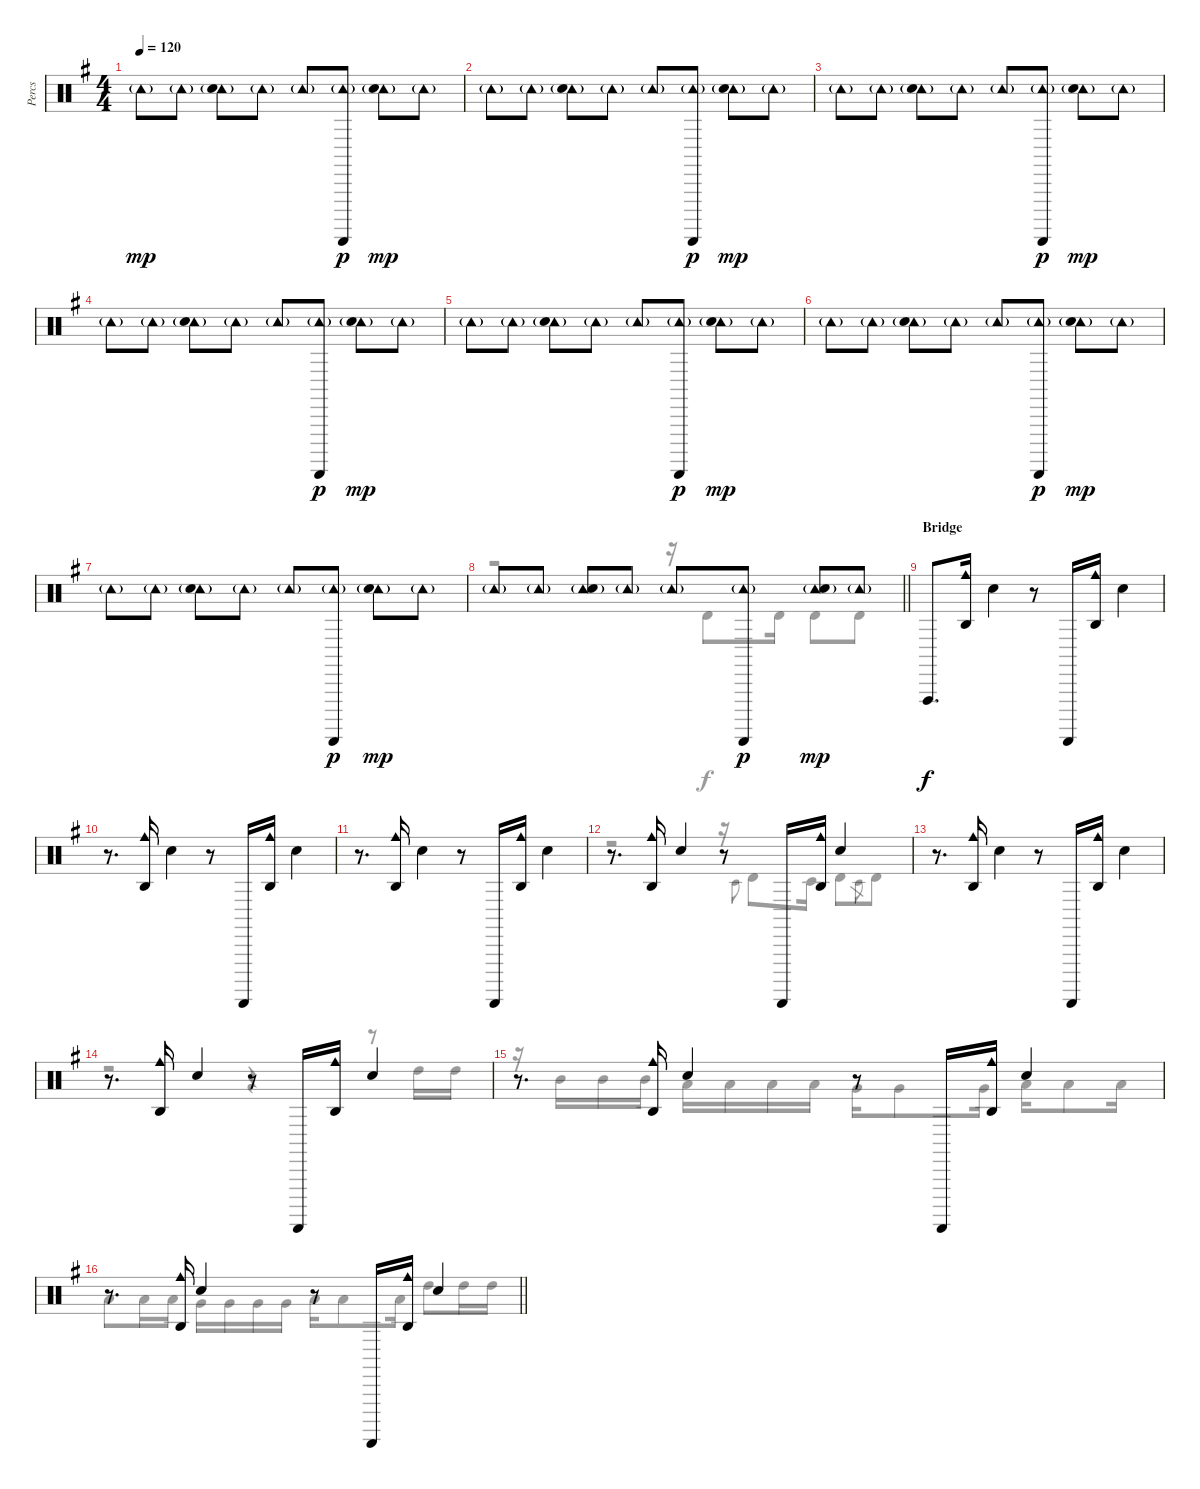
\track ("Percs" "Percs") {instrument percussion}
\staff {score}
\articulation defaults
\voice
\ts (4 4)
\tempo 120
\clef neutral
\ks g "Tambourine (hit)"{g}.8{dy mp} "Tambourine (hit)"{g}.8
("Tambourine (hit)"{g} "Hand Clap (hit)").8 "Tambourine (hit)"{g}.8 "Tambourine (hit)"{g}.8 ("Tambourine (hit)"{g} "Guiro (scrap-return)").8{dy p} ("Tambourine (hit)"{g} "Hand Clap (hit)").8{dy mp} "Tambourine (hit)"{g}.8 |
"Tambourine (hit)"{g}.8 "Tambourine (hit)"{g}.8 ("Tambourine (hit)"{g} "Hand Clap (hit)").8 "Tambourine (hit)"{g}.8 "Tambourine (hit)"{g}.8 ("Tambourine (hit)"{g} "Guiro (scrap-return)").8{dy p} ("Tambourine (hit)"{g} "Hand Clap (hit)").8{dy mp} "Tambourine (hit)"{g}.8 |
"Tambourine (hit)"{g}.8 "Tambourine (hit)"{g}.8 ("Tambourine (hit)"{g} "Hand Clap (hit)").8 "Tambourine (hit)"{g}.8 "Tambourine (hit)"{g}.8 ("Tambourine (hit)"{g} "Guiro (scrap-return)").8{dy p} ("Tambourine (hit)"{g} "Hand Clap (hit)").8{dy mp} "Tambourine (hit)"{g}.8 |
"Tambourine (hit)"{g}.8 "Tambourine (hit)"{g}.8 ("Tambourine (hit)"{g} "Hand Clap (hit)").8 "Tambourine (hit)"{g}.8 "Tambourine (hit)"{g}.8 ("Tambourine (hit)"{g} "Guiro (scrap-return)").8{dy p} ("Tambourine (hit)"{g} "Hand Clap (hit)").8{dy mp} "Tambourine (hit)"{g}.8 |
"Tambourine (hit)"{g}.8 "Tambourine (hit)"{g}.8 ("Tambourine (hit)"{g} "Hand Clap (hit)").8 "Tambourine (hit)"{g}.8 "Tambourine (hit)"{g}.8 ("Tambourine (hit)"{g} "Guiro (scrap-return)").8{dy p} ("Tambourine (hit)"{g} "Hand Clap (hit)").8{dy mp} "Tambourine (hit)"{g}.8 |
"Tambourine (hit)"{g}.8 "Tambourine (hit)"{g}.8 ("Tambourine (hit)"{g} "Hand Clap (hit)").8 "Tambourine (hit)"{g}.8 "Tambourine (hit)"{g}.8 ("Tambourine (hit)"{g} "Guiro (scrap-return)").8{dy p} ("Tambourine (hit)"{g} "Hand Clap (hit)").8{dy mp} "Tambourine (hit)"{g}.8 |
"Tambourine (hit)"{g}.8 "Tambourine (hit)"{g}.8 ("Tambourine (hit)"{g} "Hand Clap (hit)").8 "Tambourine (hit)"{g}.8 "Tambourine (hit)"{g}.8 ("Tambourine (hit)"{g} "Guiro (scrap-return)").8{dy p} ("Tambourine (hit)"{g} "Hand Clap (hit)").8{dy mp} "Tambourine (hit)"{g}.8 |
\barLineRight lightlight "Tambourine (hit)"{g}.8 "Tambourine (hit)"{g}.8
("Tambourine (hit)"{g} "Hand Clap (hit)").8 "Tambourine (hit)"{g}.8 "Tambourine (hit)"{g}.8 ("Tambourine (hit)"{g} "Guiro (scrap-return)").8{dy p} ("Tambourine (hit)"{g} "Hand Clap (hit)").8{dy mp} "Tambourine (hit)"{g}.8 |
\section ("" "Bridge")
"Vibraslap (hit)".8{d dy f} ("Cowbell medium (hit)" "Agogo high (hit)").16 "Hand Clap (hit)".4 r.8 "Guiro (scrap-return)".16 ("Cowbell medium (hit)" "Agogo high (hit)").16 "Hand Clap (hit)".4 |
r.8{d} ("Cowbell medium (hit)" "Agogo high (hit)").16 "Hand Clap (hit)".4 r.8 "Guiro (scrap-return)".16 ("Cowbell medium (hit)" "Agogo high (hit)").16 "Hand Clap (hit)".4 |
r.8{d} ("Cowbell medium (hit)" "Agogo high (hit)").16 "Hand Clap (hit)".4 r.8 "Guiro (scrap-return)".16 ("Cowbell medium (hit)" "Agogo high (hit)").16 "Hand Clap (hit)".4 |
r.8{d} ("Cowbell medium (hit)" "Agogo high (hit)").16 "Hand Clap (hit)".4 r.8 "Guiro (scrap-return)".16 ("Cowbell medium (hit)" "Agogo high (hit)").16 "Hand Clap (hit)".4 |
r.8{d} ("Cowbell medium (hit)" "Agogo high (hit)").16 "Hand Clap (hit)".4 r.8 "Guiro (scrap-return)".16 ("Cowbell medium (hit)" "Agogo high (hit)").16 "Hand Clap (hit)".4 |
r.8{d} ("Cowbell medium (hit)" "Agogo high (hit)").16 "Hand Clap (hit)".4 r.8 "Guiro (scrap-return)".16 ("Cowbell medium (hit)" "Agogo high (hit)").16 "Hand Clap (hit)".4 |
r.8{d} ("Cowbell medium (hit)" "Agogo high (hit)").16 "Hand Clap (hit)".4 r.8 "Guiro (scrap-return)".16 ("Cowbell medium (hit)" "Agogo high (hit)").16 "Hand Clap (hit)".4 |
\barLineRight lightlight
r.8{d} ("Cowbell medium (hit)" "Agogo high (hit)").16 "Hand Clap (hit)".4 r.8 "Guiro (scrap-return)".16 ("Cowbell medium (hit)" "Agogo high (hit)").16 "Hand Clap (hit)".4
\voice
\clef neutral
\ottava regular
\simile none
\ks g
|
|
|
|
|
|
|
\barLineRight lightlight
r.2 r.16 "Timbale high (hit)".8 "Timbale high (hit)".16 "Timbale high (hit)".8 "Timbale high (hit)".8 |
|
|
|
r.2 r.16 "Timbale low (hit)".8{gr onbeat} "Timbale high (hit)".8 "Timbale low (hit)".16 "Timbale high (hit)".8 "Timbale low (hit)".8{gr} "Timbale high (hit)".8 |
|
r.2 r.4 r.8 "High Tom (hit)".16 "High Tom (hit)".16 |
r.16 "Mid Tom (hit)".16 "Mid Tom (hit)".16 "Mid Tom (hit)".16 "Low Tom (hit)".16 "Low Tom (hit)".16 "Low Tom (hit)".16 "Low Tom (hit)".16 "Very Low Tom (hit)".16 "Very Low Tom (hit)".8 "Very Low Tom (hit)".16 "Low Floor Tom (hit)".16 "Low Floor Tom (hit)".8 "Low Floor Tom (hit)".16 |
\barLineRight lightlight "Low Floor Tom (hit)".8 "Low Floor Tom (hit)".16 "Low Floor Tom (hit)".16 "Very Low Tom (hit)".16 "Very Low Tom (hit)".16 "Very Low Tom (hit)".16 "Very Low Tom (hit)".16 "Low Tom (hit)".16 "Low Tom (hit)".8 "Low Tom (hit)".16 "High Tom (hit)".8 "High Tom (hit)".16 "High Tom (hit)".16
